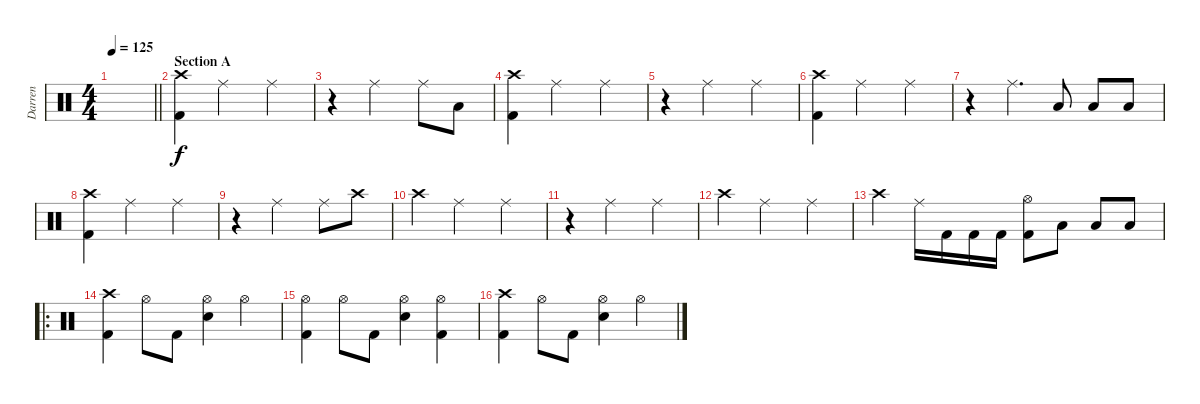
\track ("Darren" "Darren") {instrument percussion}
\staff {score}
\articulation defaults
\ts (4 4)
\tempo 125
\clef neutral
\barLineRight lightlight
\ks c
|
\section ("" "Section A")
("Crash high (hit)" "Kick (hit) 2").4 "Ride (middle)".2 "Ride (middle)".4 |
r.4 "Ride (middle)".2 "Ride (middle)".8 "Low Floor Tom (hit)".8 |
("Crash high (hit)" "Kick (hit) 2").4 "Ride (middle)".2 "Ride (middle)".4 |
r.4 "Ride (middle)".2 "Ride (middle)".4 |
("Crash high (hit)" "Kick (hit) 2").4 "Ride (middle)".2 "Ride (middle)".4 |
r.4 "Ride (middle)".4{d} "Low Floor Tom (hit)".8 "Low Floor Tom (hit)".8 "Low Floor Tom (hit)".8 |
("Crash high (hit)" "Kick (hit) 2").4 "Ride (middle)".2 "Ride (middle)".4 |
r.4 "Ride (middle)".2 "Ride (middle)".8 "Crash high (hit)".8 |
"Crash high (hit)".4 "Ride (middle)".2 "Ride (middle)".4 |
r.4 "Ride (middle)".2 "Ride (middle)".4 |
"Crash high (hit)".4 "Ride (middle)".2 "Ride (middle)".4 |
"Crash high (hit)".4 "Ride (middle)".16 "Kick (hit) 2".16 "Kick (hit) 2".16 "Kick (hit) 2".16 ("Hi-Hat (open)" "Kick (hit) 2").8 "Low Floor Tom (hit)".8 "Low Floor Tom (hit)".8 "Low Floor Tom (hit)".8 |
\ro
("Crash high (hit)" "Kick (hit) 2").4 "Hi-Hat (open)".8 "Kick (hit) 2".8 ("Hi-Hat (open)" "Electric Snare (hit)").4 "Hi-Hat (open)".4 |
("Hi-Hat (open)" "Kick (hit) 2").4 "Hi-Hat (open)".8 "Kick (hit) 2".8 ("Hi-Hat (open)" "Electric Snare (hit)").4 ("Hi-Hat (open)" "Kick (hit) 2").4 |
("Crash high (hit)" "Kick (hit) 2").4 "Hi-Hat (open)".8 "Kick (hit) 2".8 ("Hi-Hat (open)" "Electric Snare (hit)").4 "Hi-Hat (open)".4
